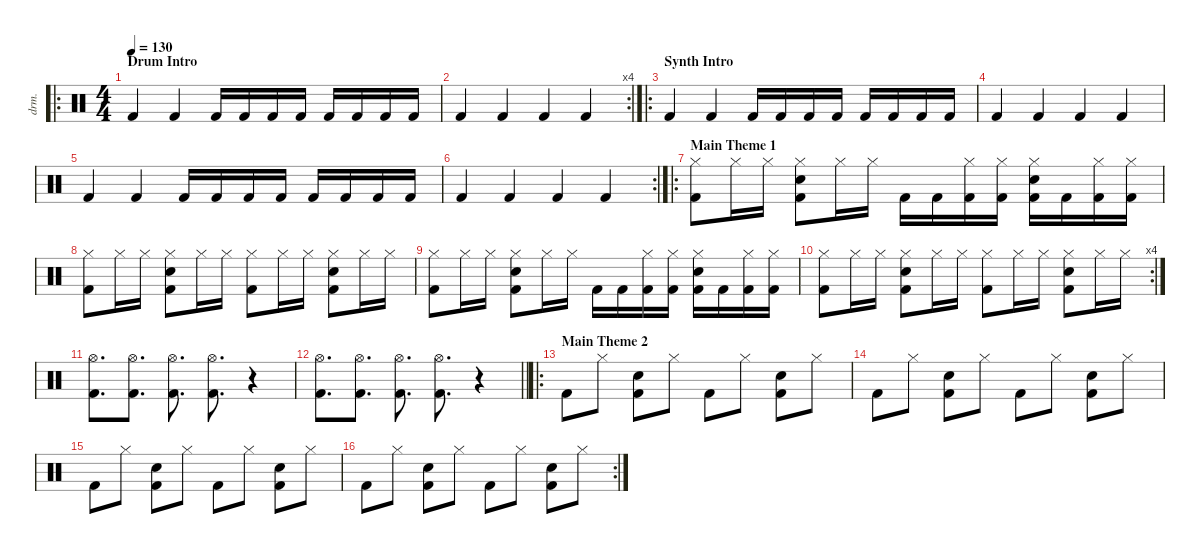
\defaultSystemsLayout 4
\hideDynamics
\bracketExtendMode nobrackets
\otherSystemsTrackNameOrientation horizontal
\track ("Percussion" "drm.") {defaultSystemsLayout 4 instrument percussion}
\staff {score}
\articulation defaults
\ro
\ts (4 4)
\beaming (8 2 2 2 2)
\section ("" "Drum Intro")
\tempo 130
\clef neutral
\ks c "Kick (hit) 2".4{dy f beam Up} "Kick (hit) 2".4{beam Up} "Kick (hit) 2".16{beam Up} "Kick (hit) 2".16{beam Up} "Kick (hit) 2".16{beam Up} "Kick (hit) 2".16{beam Up} "Kick (hit) 2".16{beam Up} "Kick (hit) 2".16{beam Up} "Kick (hit) 2".16{beam Up} "Kick (hit) 2".16{beam Up}
|
\rc 4 "Kick (hit) 2".4{beam Up} "Kick (hit) 2".4{beam Up} "Kick (hit) 2".4{beam Up} "Kick (hit) 2".4{beam Up}
|
\ro
\section ("" "Synth Intro")
"Kick (hit) 2".4{beam Up} "Kick (hit) 2".4{beam Up} "Kick (hit) 2".16{beam Up} "Kick (hit) 2".16{beam Up} "Kick (hit) 2".16{beam Up} "Kick (hit) 2".16{beam Up} "Kick (hit) 2".16{beam Up} "Kick (hit) 2".16{beam Up} "Kick (hit) 2".16{beam Up} "Kick (hit) 2".16{beam Up} |
"Kick (hit) 2".4{beam Up} "Kick (hit) 2".4{beam Up} "Kick (hit) 2".4{beam Up} "Kick (hit) 2".4{beam Up} |
"Kick (hit) 2".4{beam Up} "Kick (hit) 2".4{beam Up} "Kick (hit) 2".16{beam Up} "Kick (hit) 2".16{beam Up} "Kick (hit) 2".16{beam Up} "Kick (hit) 2".16{beam Up} "Kick (hit) 2".16{beam Up} "Kick (hit) 2".16{beam Up} "Kick (hit) 2".16{beam Up} "Kick (hit) 2".16{beam Up} |
\rc 2 "Kick (hit) 2".4{beam Up} "Kick (hit) 2".4{beam Up} "Kick (hit) 2".4{beam Up} "Kick (hit) 2".4{beam Up}
|
\ro
\section ("" "Main Theme 1")
("Hi-Hat (closed)" "Kick (hit) 2").8{beam Down} "Hi-Hat (closed)".16{beam Down} "Hi-Hat (closed)".16{beam Down} ("Hi-Hat (closed)" "Snare (hit) 2" "Kick (hit) 2").8{beam Down} "Hi-Hat (closed)".16{beam Down} "Hi-Hat (closed)".16{beam Down} "Kick (hit) 2".16{beam Down} "Kick (hit) 2".16{beam Down} ("Hi-Hat (closed)" "Kick (hit) 2").16{beam Down} ("Hi-Hat (closed)" "Kick (hit) 2").16{beam Down} ("Hi-Hat (closed)" "Snare (hit) 2" "Kick (hit) 2").16{beam Down} "Kick (hit) 2".16{beam Down} ("Hi-Hat (closed)" "Kick (hit) 2").16{beam Down} ("Hi-Hat (closed)" "Kick (hit) 2").16{beam Down} |
("Hi-Hat (closed)" "Kick (hit) 2").8{beam Down} "Hi-Hat (closed)".16{beam Down} "Hi-Hat (closed)".16{beam Down} ("Hi-Hat (closed)" "Snare (hit) 2" "Kick (hit) 2").8{beam Down} "Hi-Hat (closed)".16{beam Down} "Hi-Hat (closed)".16{beam Down} ("Hi-Hat (closed)" "Kick (hit) 2").8{beam Down} "Hi-Hat (closed)".16{beam Down} "Hi-Hat (closed)".16{beam Down} ("Hi-Hat (closed)" "Snare (hit) 2" "Kick (hit) 2").8{beam Down} "Hi-Hat (closed)".16{beam Down} "Hi-Hat (closed)".16{beam Down} |
("Hi-Hat (closed)" "Kick (hit) 2").8{beam Down} "Hi-Hat (closed)".16{beam Down} "Hi-Hat (closed)".16{beam Down} ("Hi-Hat (closed)" "Snare (hit) 2" "Kick (hit) 2").8{beam Down} "Hi-Hat (closed)".16{beam Down} "Hi-Hat (closed)".16{beam Down} "Kick (hit) 2".16{beam Down} "Kick (hit) 2".16{beam Down} ("Hi-Hat (closed)" "Kick (hit) 2").16{beam Down} ("Hi-Hat (closed)" "Kick (hit) 2").16{beam Down} ("Hi-Hat (closed)" "Snare (hit) 2" "Kick (hit) 2").16{beam Down} "Kick (hit) 2".16{beam Down} ("Hi-Hat (closed)" "Kick (hit) 2").16{beam Down} ("Hi-Hat (closed)" "Kick (hit) 2").16{beam Down} |
\rc 4
("Hi-Hat (closed)" "Kick (hit) 2").8{beam Down} "Hi-Hat (closed)".16{beam Down} "Hi-Hat (closed)".16{beam Down} ("Hi-Hat (closed)" "Snare (hit) 2" "Kick (hit) 2").8{beam Down} "Hi-Hat (closed)".16{beam Down} "Hi-Hat (closed)".16{beam Down} ("Hi-Hat (closed)" "Kick (hit) 2").8{beam Down} "Hi-Hat (closed)".16{beam Down} "Hi-Hat (closed)".16{beam Down} ("Hi-Hat (closed)" "Snare (hit) 2" "Kick (hit) 2").8{beam Down} "Hi-Hat (closed)".16{beam Down} "Hi-Hat (closed)".16{beam Down} |
("Hi-Hat (open)" "Kick (hit) 2").8{d beam Down} ("Hi-Hat (open)" "Kick (hit) 2").8{d beam Down} ("Hi-Hat (open)" "Kick (hit) 2").8{d beam Down} ("Hi-Hat (open)" "Kick (hit) 2").8{d beam Down} r.4{beam Down} |
\barLineRight lightlight
("Hi-Hat (open)" "Kick (hit) 2").8{d beam Down} ("Hi-Hat (open)" "Kick (hit) 2").8{d beam Down} ("Hi-Hat (open)" "Kick (hit) 2").8{d beam Down} ("Hi-Hat (open)" "Kick (hit) 2").8{d beam Down} r.4{beam Down} |
\ro
\section ("" "Main Theme 2")
"Kick (hit) 2".8{beam Down} "Hi-Hat (closed)".8{beam Down} ("Snare (hit) 2" "Kick (hit) 2").8{beam Down} "Hi-Hat (closed)".8{beam Down} "Kick (hit) 2".8{beam Down} "Hi-Hat (closed)".8{beam Down} ("Snare (hit) 2" "Kick (hit) 2").8{beam Down} "Hi-Hat (closed)".8{beam Down} |
"Kick (hit) 2".8{beam Down} "Hi-Hat (closed)".8{beam Down} ("Snare (hit) 2" "Kick (hit) 2").8{beam Down} "Hi-Hat (closed)".8{beam Down} "Kick (hit) 2".8{beam Down} "Hi-Hat (closed)".8{beam Down} ("Snare (hit) 2" "Kick (hit) 2").8{beam Down} "Hi-Hat (closed)".8{beam Down} |
"Kick (hit) 2".8{beam Down} "Hi-Hat (closed)".8{beam Down} ("Snare (hit) 2" "Kick (hit) 2").8{beam Down} "Hi-Hat (closed)".8{beam Down} "Kick (hit) 2".8{beam Down} "Hi-Hat (closed)".8{beam Down} ("Snare (hit) 2" "Kick (hit) 2").8{beam Down} "Hi-Hat (closed)".8{beam Down} |
\rc 2 "Kick (hit) 2".8{beam Down} "Hi-Hat (closed)".8{beam Down}
("Snare (hit) 2" "Kick (hit) 2").8{beam Down} "Hi-Hat (closed)".8{beam Down} "Kick (hit) 2".8{beam Down} "Hi-Hat (closed)".8{beam Down} ("Snare (hit) 2" "Kick (hit) 2").8{beam Down} "Hi-Hat (closed)".8{beam Down}
